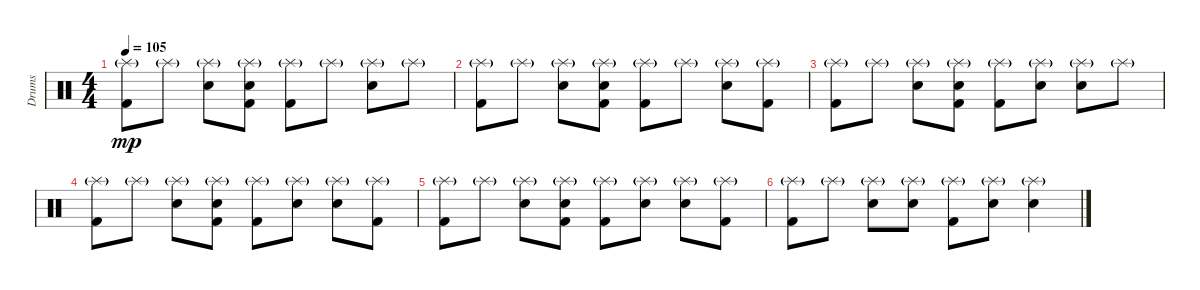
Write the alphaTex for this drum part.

\track ("Drums" "Drums") {instrument percussion}
\staff {score}
\articulation defaults
\ts (4 4)
\tempo 105
\clef neutral
\ks c
("Splash (hit)"{g} "Kick (hit) 2").8{dy mp} "Splash (hit)"{g}.8 ("Splash (hit)"{g} "Snare (hit) 2").8 ("Splash (hit)"{g} "Snare (hit) 2" "Kick (hit) 2").8 ("Splash (hit)"{g} "Kick (hit) 2").8 "Splash (hit)"{g}.8 ("Splash (hit)"{g} "Snare (hit) 2").8 "Splash (hit)"{g}.8 |
("Splash (hit)"{g} "Kick (hit) 2").8 "Splash (hit)"{g}.8 ("Splash (hit)"{g} "Snare (hit) 2").8 ("Splash (hit)"{g} "Snare (hit) 2" "Kick (hit) 2").8 ("Splash (hit)"{g} "Kick (hit) 2").8 "Splash (hit)"{g}.8 ("Splash (hit)"{g} "Snare (hit) 2").8 ("Splash (hit)"{g} "Kick (hit) 2").8 |
("Splash (hit)"{g} "Kick (hit) 2").8 "Splash (hit)"{g}.8 ("Splash (hit)"{g} "Snare (hit) 2").8 ("Splash (hit)"{g} "Snare (hit) 2" "Kick (hit) 2").8 ("Splash (hit)"{g} "Kick (hit) 2").8 ("Splash (hit)"{g} "Snare (hit) 2").8 ("Splash (hit)"{g} "Snare (hit) 2").8 "Splash (hit)"{g}.8 |
("Splash (hit)"{g} "Kick (hit) 2").8 "Splash (hit)"{g}.8 ("Splash (hit)"{g} "Snare (hit) 2").8 ("Splash (hit)"{g} "Snare (hit) 2" "Kick (hit) 2").8 ("Splash (hit)"{g} "Kick (hit) 2").8 ("Splash (hit)"{g} "Snare (hit) 2").8 ("Splash (hit)"{g} "Snare (hit) 2").8 ("Splash (hit)"{g} "Kick (hit) 2").8 |
("Splash (hit)"{g} "Kick (hit) 2").8 "Splash (hit)"{g}.8 ("Splash (hit)"{g} "Snare (hit) 2").8 ("Splash (hit)"{g} "Snare (hit) 2" "Kick (hit) 2").8 ("Splash (hit)"{g} "Kick (hit) 2").8 ("Splash (hit)"{g} "Snare (hit) 2").8 ("Splash (hit)"{g} "Snare (hit) 2").8 ("Splash (hit)"{g} "Kick (hit) 2").8 |
("Splash (hit)"{g} "Kick (hit) 2").8 "Splash (hit)"{g}.8 ("Splash (hit)"{g} "Snare (hit) 2").8 ("Splash (hit)"{g} "Snare (hit) 2").8 ("Splash (hit)"{g} "Kick (hit) 2").8 ("Splash (hit)"{g} "Snare (hit) 2").8 ("Splash (hit)"{g} "Snare (hit) 2").4
